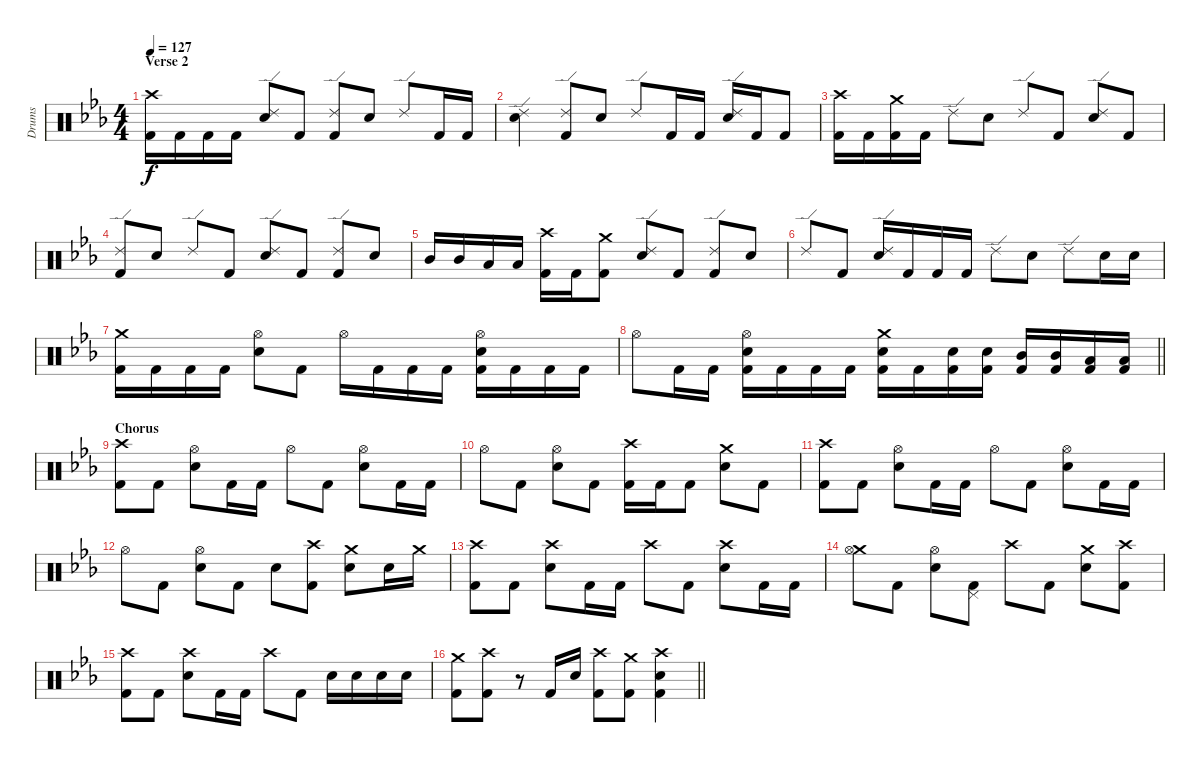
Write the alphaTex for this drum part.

\track ("Drums" "Drums") {instrument percussion}
\staff {score}
\articulation defaults
\ts (4 4)
\section ("" "Verse 2")
\tempo 127
\clef neutral
\ks cminor
("Crash high (hit)" "Kick (hit) 2").16{dy f} "Kick (hit) 2".16 "Kick (hit) 2".16 "Kick (hit) 2".16 ("Ride (edge) 2" "Snare (hit) 2").8 "Kick (hit) 2".8 ("Ride (edge) 2" "Kick (hit) 2").8 "Snare (hit) 2".8 "Ride (edge) 2".8 "Kick (hit) 2".16 "Kick (hit) 2".16 |
("Ride (edge) 2" "Snare (hit) 2").4 ("Ride (edge) 2" "Kick (hit) 2").8 "Snare (hit) 2".8 "Ride (edge) 2".8 "Kick (hit) 2".16 "Kick (hit) 2".16 ("Ride (edge) 2" "Snare (hit) 2").16 "Kick (hit) 2".16 "Kick (hit) 2".8 |
("Crash high (hit)" "Kick (hit) 2").16 "Kick (hit) 2".16 ("Crash medium (hit)" "Kick (hit) 2").16 "Kick (hit) 2".16 "Ride (edge) 2".8 "Snare (hit) 2".8 "Ride (edge) 2".8 "Kick (hit) 2".8 ("Ride (edge) 2" "Snare (hit) 2").8 "Kick (hit) 2".8 |
("Ride (edge) 2" "Kick (hit) 2").8 "Snare (hit) 2".8 "Ride (edge) 2".8 "Kick (hit) 2".8 ("Ride (edge) 2" "Snare (hit) 2").8 "Kick (hit) 2".8 ("Ride (edge) 2" "Kick (hit) 2").8 "Snare (hit) 2".8 |
"Mid Tom (hit)".16 "Mid Tom (hit)".16 "Low Tom (hit)".16 "Low Tom (hit)".16 ("Crash high (hit)" "Kick (hit) 2").16 "Kick (hit) 2".16 ("Crash medium (hit)" "Kick (hit) 2").8 ("Ride (edge) 2" "Snare (hit) 2").8 "Kick (hit) 2".8 ("Ride (edge) 2" "Kick (hit) 2").8 "Snare (hit) 2".8 |
"Ride (edge) 2".8 "Kick (hit) 2".8 ("Ride (edge) 2" "Snare (hit) 2").16 "Kick (hit) 2".16 "Kick (hit) 2".16 "Kick (hit) 2".16 "Ride (edge) 2".8 "Snare (hit) 2".8 "Ride (edge) 2".8 "Snare (hit) 2".16 "Snare (hit) 2".16 |
("Crash medium (hit)" "Kick (hit) 2").16 "Kick (hit) 2".16 "Kick (hit) 2".16 "Kick (hit) 2".16 ("Hi-Hat (open)" "Snare (hit) 2").8 "Kick (hit) 2".8 "Hi-Hat (open)".16 "Kick (hit) 2".16 "Kick (hit) 2".16 "Kick (hit) 2".16 ("Hi-Hat (open)" "Snare (hit) 2" "Kick (hit) 2").16 "Kick (hit) 2".16 "Kick (hit) 2".16 "Kick (hit) 2".16 |
\barLineRight lightlight "Hi-Hat (open)".8 "Kick (hit) 2".16 "Kick (hit) 2".16
("Hi-Hat (open)" "Snare (hit) 2" "Kick (hit) 2").16 "Kick (hit) 2".16 "Kick (hit) 2".16 "Kick (hit) 2".16 ("Crash medium (hit)" "Snare (hit) 2" "Kick (hit) 2").16 "Kick (hit) 2".16 ("Snare (hit) 2" "Kick (hit) 2").16 ("Snare (hit) 2" "Kick (hit) 2").16 ("Mid Tom (hit)" "Kick (hit) 2").16 ("Mid Tom (hit)" "Kick (hit) 2").16 ("Low Tom (hit)" "Kick (hit) 2").16 ("Low Tom (hit)" "Kick (hit) 2").16 |
\section ("" "Chorus")
("Crash high (hit)" "Kick (hit) 2").8 "Kick (hit) 2".8 ("Hi-Hat (open)" "Snare (hit) 2").8 "Kick (hit) 2".16 "Kick (hit) 2".16 "Hi-Hat (open)".8 "Kick (hit) 2".8 ("Hi-Hat (open)" "Snare (hit) 2").8 "Kick (hit) 2".16 "Kick (hit) 2".16 |
"Hi-Hat (open)".8 "Kick (hit) 2".8 ("Hi-Hat (open)" "Snare (hit) 2").8 "Kick (hit) 2".8 ("Crash high (hit)" "Kick (hit) 2").16 "Kick (hit) 2".16 "Kick (hit) 2".8 ("Crash medium (hit)" "Snare (hit) 2").8 "Kick (hit) 2".8 |
("Crash high (hit)" "Kick (hit) 2").8 "Kick (hit) 2".8 ("Hi-Hat (open)" "Snare (hit) 2").8 "Kick (hit) 2".16 "Kick (hit) 2".16 "Hi-Hat (open)".8 "Kick (hit) 2".8 ("Hi-Hat (open)" "Snare (hit) 2").8 "Kick (hit) 2".16 "Kick (hit) 2".16 |
"Hi-Hat (open)".8 "Kick (hit) 2".8 ("Hi-Hat (open)" "Snare (hit) 2").8 "Kick (hit) 2".8 "Snare (hit) 2".8 ("Crash high (hit)" "Kick (hit) 2").8 ("Crash medium (hit)" "Snare (hit) 2").8 "Snare (hit) 2".16 "Crash medium (hit)".16 |
("Crash high (hit)" "Kick (hit) 2").8 "Kick (hit) 2".8 ("Crash high (hit)" "Snare (hit) 2").8 "Kick (hit) 2".16 "Kick (hit) 2".16 "Crash high (hit)".8 "Kick (hit) 2".8 ("Crash high (hit)" "Snare (hit) 2").8 "Kick (hit) 2".16 "Kick (hit) 2".16 |
("Crash medium (hit)" "Hi-Hat (open)").8 "Kick (hit) 2".8 ("Hi-Hat (open)" "Snare (hit) 2").8 ("Pedal Hi-Hat (hit)" "Kick (hit) 2").8 "Crash high (hit)".8 "Kick (hit) 2".8 ("Crash medium (hit)" "Snare (hit) 2").8 ("Crash high (hit)" "Kick (hit) 2").8 |
("Crash high (hit)" "Kick (hit) 2").8 "Kick (hit) 2".8 ("Crash high (hit)" "Snare (hit) 2").8 "Kick (hit) 2".16 "Kick (hit) 2".16 "Crash high (hit)".8 "Kick (hit) 2".8 "Snare (hit) 2".16 "Snare (hit) 2".16 "Snare (hit) 2".16 "Snare (hit) 2".16 |
\barLineRight lightlight
("Crash medium (hit)" "Kick (hit) 2").8 ("Crash high (hit)" "Kick (hit) 2").8 r.8 "Kick (hit) 2".16 "Snare (hit) 2".16 ("Crash high (hit)" "Kick (hit) 2").8 ("Crash medium (hit)" "Kick (hit) 2").8 ("Crash high (hit)" "Snare (hit) 2" "Kick (hit) 2").4
